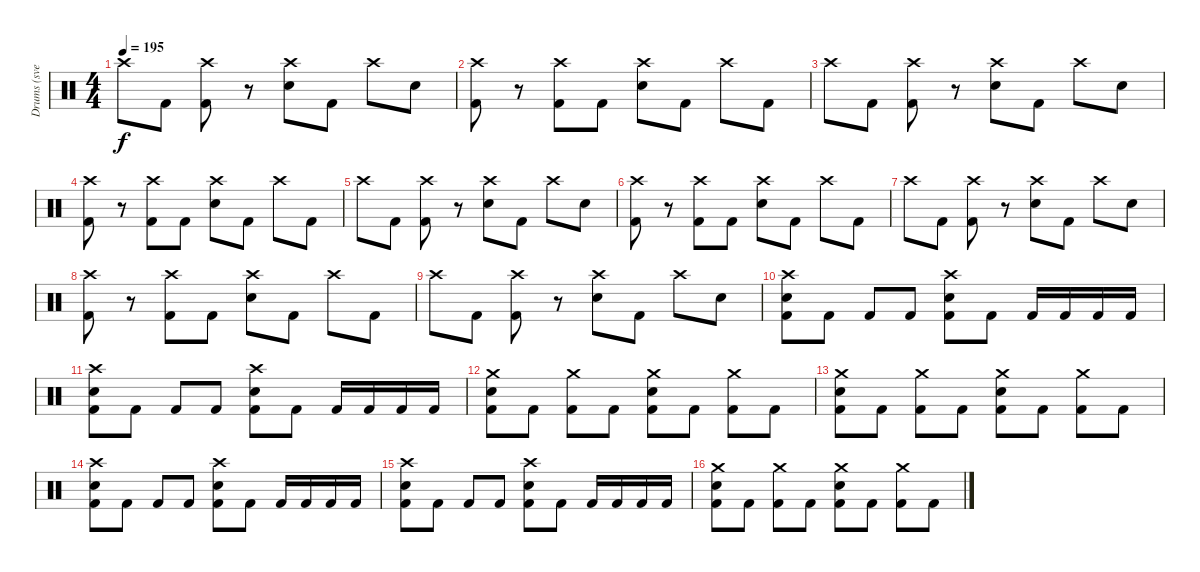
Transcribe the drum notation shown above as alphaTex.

\track ("Drums (svelle)" "Drums (sve") {instrument percussion}
\staff {score}
\articulation defaults
\ts (4 4)
\tempo 195
\clef neutral
\ks c "Crash high (hit)".8{dy f} "Kick (hit) 2".8
("Crash high (hit)" "Kick (hit) 2").8 r.8 ("Crash high (hit)" "Electric Snare (hit)").8 "Kick (hit) 2".8 "Crash high (hit)".8 "Electric Snare (hit)".8 |
("Crash high (hit)" "Kick (hit) 2").8 r.8 ("Crash high (hit)" "Kick (hit) 2").8 "Kick (hit) 2".8 ("Crash high (hit)" "Electric Snare (hit)").8 "Kick (hit) 2".8 "Crash high (hit)".8 "Kick (hit) 2".8 |
"Crash high (hit)".8 "Kick (hit) 2".8 ("Crash high (hit)" "Kick (hit) 2").8 r.8 ("Crash high (hit)" "Electric Snare (hit)").8 "Kick (hit) 2".8 "Crash high (hit)".8 "Electric Snare (hit)".8 |
("Crash high (hit)" "Kick (hit) 2").8 r.8 ("Crash high (hit)" "Kick (hit) 2").8 "Kick (hit) 2".8 ("Crash high (hit)" "Electric Snare (hit)").8 "Kick (hit) 2".8 "Crash high (hit)".8 "Kick (hit) 2".8 |
"Crash high (hit)".8 "Kick (hit) 2".8 ("Crash high (hit)" "Kick (hit) 2").8 r.8 ("Crash high (hit)" "Electric Snare (hit)").8 "Kick (hit) 2".8 "Crash high (hit)".8 "Electric Snare (hit)".8 |
("Crash high (hit)" "Kick (hit) 2").8 r.8 ("Crash high (hit)" "Kick (hit) 2").8 "Kick (hit) 2".8 ("Crash high (hit)" "Electric Snare (hit)").8 "Kick (hit) 2".8 "Crash high (hit)".8 "Kick (hit) 2".8 |
"Crash high (hit)".8 "Kick (hit) 2".8 ("Crash high (hit)" "Kick (hit) 2").8 r.8 ("Crash high (hit)" "Electric Snare (hit)").8 "Kick (hit) 2".8 "Crash high (hit)".8 "Electric Snare (hit)".8 |
("Crash high (hit)" "Kick (hit) 2").8 r.8 ("Crash high (hit)" "Kick (hit) 2").8 "Kick (hit) 2".8 ("Crash high (hit)" "Electric Snare (hit)").8 "Kick (hit) 2".8 "Crash high (hit)".8 "Kick (hit) 2".8 |
"Crash high (hit)".8 "Kick (hit) 2".8 ("Crash high (hit)" "Kick (hit) 2").8 r.8 ("Crash high (hit)" "Electric Snare (hit)").8 "Kick (hit) 2".8 "Crash high (hit)".8 "Electric Snare (hit)".8 |
("Crash high (hit)" "Electric Snare (hit)" "Kick (hit) 2").8 "Kick (hit) 2".8 "Kick (hit) 2".8 "Kick (hit) 2".8 ("Crash high (hit)" "Electric Snare (hit)" "Kick (hit) 2").8 "Kick (hit) 2".8 "Kick (hit) 2".16 "Kick (hit) 2".16 "Kick (hit) 2".16 "Kick (hit) 2".16 |
("Crash high (hit)" "Electric Snare (hit)" "Kick (hit) 2").8 "Kick (hit) 2".8 "Kick (hit) 2".8 "Kick (hit) 2".8 ("Crash high (hit)" "Electric Snare (hit)" "Kick (hit) 2").8 "Kick (hit) 2".8 "Kick (hit) 2".16 "Kick (hit) 2".16 "Kick (hit) 2".16 "Kick (hit) 2".16 |
("Crash medium (hit)" "Electric Snare (hit)" "Kick (hit) 2").8 "Kick (hit) 2".8 ("Crash medium (hit)" "Kick (hit) 2").8 "Kick (hit) 2".8 ("Crash medium (hit)" "Electric Snare (hit)" "Kick (hit) 2").8 "Kick (hit) 2".8 ("Crash medium (hit)" "Kick (hit) 2").8 "Kick (hit) 2".8 |
("Crash medium (hit)" "Electric Snare (hit)" "Kick (hit) 2").8 "Kick (hit) 2".8 ("Crash medium (hit)" "Kick (hit) 2").8 "Kick (hit) 2".8 ("Crash medium (hit)" "Electric Snare (hit)" "Kick (hit) 2").8 "Kick (hit) 2".8 ("Crash medium (hit)" "Kick (hit) 2").8 "Kick (hit) 2".8 |
("Crash high (hit)" "Electric Snare (hit)" "Kick (hit) 2").8 "Kick (hit) 2".8 "Kick (hit) 2".8 "Kick (hit) 2".8 ("Crash high (hit)" "Electric Snare (hit)" "Kick (hit) 2").8 "Kick (hit) 2".8 "Kick (hit) 2".16 "Kick (hit) 2".16 "Kick (hit) 2".16 "Kick (hit) 2".16 |
("Crash high (hit)" "Electric Snare (hit)" "Kick (hit) 2").8 "Kick (hit) 2".8 "Kick (hit) 2".8 "Kick (hit) 2".8 ("Crash high (hit)" "Electric Snare (hit)" "Kick (hit) 2").8 "Kick (hit) 2".8 "Kick (hit) 2".16 "Kick (hit) 2".16 "Kick (hit) 2".16 "Kick (hit) 2".16 |
("Crash medium (hit)" "Electric Snare (hit)" "Kick (hit) 2").8 "Kick (hit) 2".8 ("Crash medium (hit)" "Kick (hit) 2").8 "Kick (hit) 2".8 ("Crash medium (hit)" "Electric Snare (hit)" "Kick (hit) 2").8 "Kick (hit) 2".8 ("Crash medium (hit)" "Kick (hit) 2").8 "Kick (hit) 2".8
